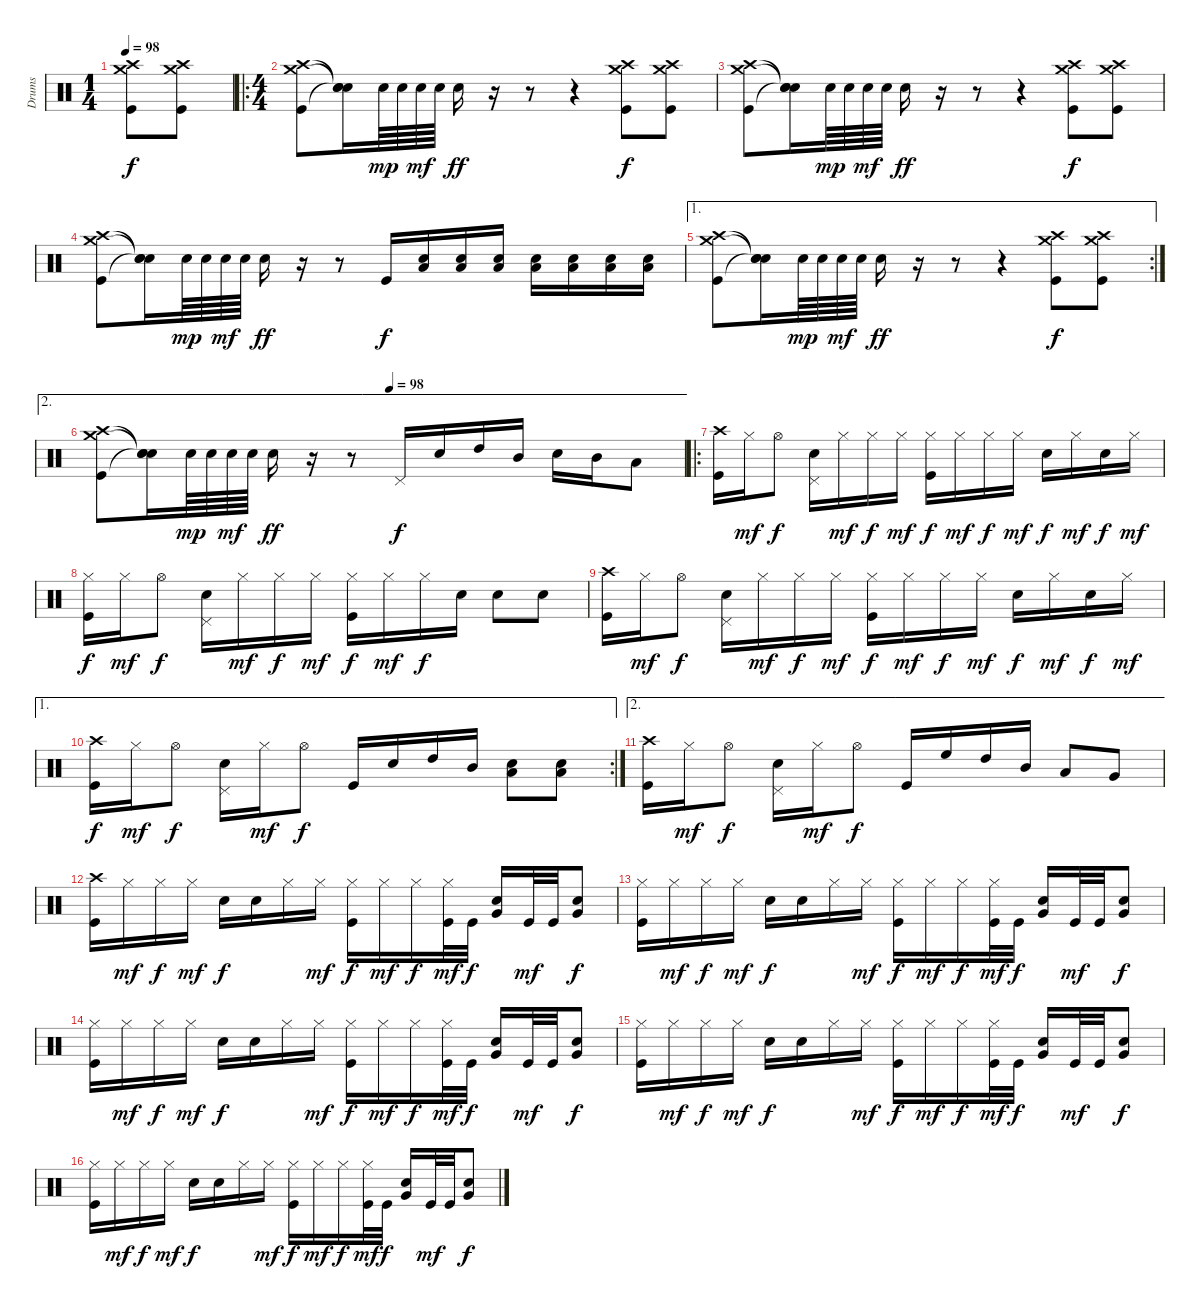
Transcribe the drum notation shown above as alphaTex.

\track ("Drums" "Drums") {instrument percussion}
\staff {score}
\articulation defaults
\ts (1 4)
\tempo 98
\tempo 70
\tempo 98
\clef neutral
\ks c
("Crash high (hit)" "Crash medium (hit)" "Kick (hit)").8{dy f} ("Crash high (hit)" "Crash medium (hit)" "Kick (hit)").8 |
\ro
\ts (4 4)
("Crash high (hit)" "Crash medium (hit)" "Kick (hit)").8 ("Snare (hit)"{t} "Snare (hit)"{t} "Snare (hit)"{t}).16 "Electric Snare (hit)".64{dy mp} "Electric Snare (hit)".64 "Electric Snare (hit)".64{dy mf} "Electric Snare (hit)".64 "Electric Snare (hit)".16{dy ff} r.16 r.8 r.4 ("Crash medium (hit)" "Crash high (hit)" "Kick (hit)").8{dy f} ("Crash high (hit)" "Crash medium (hit)" "Kick (hit)").8 |
("Crash high (hit)" "Crash medium (hit)" "Kick (hit)").8 ("Snare (hit)"{t} "Snare (hit)"{t} "Snare (hit)"{t}).16 "Electric Snare (hit)".64{dy mp} "Electric Snare (hit)".64 "Electric Snare (hit)".64{dy mf} "Electric Snare (hit)".64 "Electric Snare (hit)".16{dy ff} r.16 r.8 r.4 ("Crash medium (hit)" "Crash high (hit)" "Kick (hit)").8{dy f} ("Crash high (hit)" "Crash medium (hit)" "Kick (hit)").8 |
("Crash high (hit)" "Crash medium (hit)" "Kick (hit)").8 ("Snare (hit)"{t} "Snare (hit)"{t} "Snare (hit)"{t}).16 "Electric Snare (hit)".64{dy mp} "Electric Snare (hit)".64 "Electric Snare (hit)".64{dy mf} "Electric Snare (hit)".64 "Electric Snare (hit)".16{dy ff} r.16 r.8 "Kick (hit)".16{dy f} ("Electric Snare (hit)" "Low Floor Tom (hit)").16 ("Electric Snare (hit)" "Low Floor Tom (hit)").16 ("Electric Snare (hit)" "Low Floor Tom (hit)").16 ("Electric Snare (hit)" "Low Floor Tom (hit)").16 ("Electric Snare (hit)" "Low Floor Tom (hit)").16 ("Electric Snare (hit)" "Low Floor Tom (hit)").16 ("Electric Snare (hit)" "Low Floor Tom (hit)").16 |
\ae 1
\rc 2
("Crash high (hit)" "Crash medium (hit)" "Kick (hit)").8 ("Snare (hit)"{t} "Snare (hit)"{t} "Snare (hit)"{t}).16 "Electric Snare (hit)".64{dy mp} "Electric Snare (hit)".64 "Electric Snare (hit)".64{dy mf} "Electric Snare (hit)".64 "Electric Snare (hit)".16{dy ff} r.16 r.8 r.4 ("Crash medium (hit)" "Crash high (hit)" "Kick (hit)").8{dy f} ("Crash high (hit)" "Crash medium (hit)" "Kick (hit)").8 |
\ae 2
\tempo (98 0.5)
("Crash high (hit)" "Crash medium (hit)" "Kick (hit)").8 ("Snare (hit)"{t} "Snare (hit)"{t} "Snare (hit)"{t}).16 "Electric Snare (hit)".64{dy mp} "Electric Snare (hit)".64 "Electric Snare (hit)".64{dy mf} "Electric Snare (hit)".64 "Electric Snare (hit)".16{dy ff} r.16 r.8 "Pedal Hi-Hat (hit)".16{dy f} "Electric Snare (hit)".16 "High Tom (hit)".16 "Mid Tom (hit)".16 "Electric Snare (hit)".16 "Mid Tom (hit)".16 "Low Tom (hit)".8 |
\ro
("Crash high (hit)" "Kick (hit)").16 "Hi-Hat (closed)".16{dy mf} "Hi-Hat (open)".8{dy f} ("Electric Snare (hit)" "Pedal Hi-Hat (hit)").16 "Hi-Hat (closed)".16{dy mf} "Hi-Hat (closed)".16{dy f} "Hi-Hat (closed)".16{dy mf} ("Hi-Hat (closed)" "Kick (hit)").16{dy f} "Hi-Hat (closed)".16{dy mf} "Hi-Hat (closed)".16{dy f} "Hi-Hat (closed)".16{dy mf} "Electric Snare (hit)".16{dy f} "Hi-Hat (closed)".16{dy mf} "Electric Snare (hit)".16{dy f} "Hi-Hat (closed)".16{dy mf} |
("Hi-Hat (closed)" "Kick (hit)").16{dy f} "Hi-Hat (closed)".16{dy mf} "Hi-Hat (open)".8{dy f} ("Electric Snare (hit)" "Pedal Hi-Hat (hit)").16 "Hi-Hat (closed)".16{dy mf} "Hi-Hat (closed)".16{dy f} "Hi-Hat (closed)".16{dy mf} ("Hi-Hat (closed)" "Kick (hit)").16{dy f} "Hi-Hat (closed)".16{dy mf} "Hi-Hat (closed)".16{dy f} "Electric Snare (hit)".16 "Electric Snare (hit)".8 "Electric Snare (hit)".8 |
("Crash high (hit)" "Kick (hit)").16 "Hi-Hat (closed)".16{dy mf} "Hi-Hat (open)".8{dy f} ("Electric Snare (hit)" "Pedal Hi-Hat (hit)").16 "Hi-Hat (closed)".16{dy mf} "Hi-Hat (closed)".16{dy f} "Hi-Hat (closed)".16{dy mf} ("Hi-Hat (closed)" "Kick (hit)").16{dy f} "Hi-Hat (closed)".16{dy mf} "Hi-Hat (closed)".16{dy f} "Hi-Hat (closed)".16{dy mf} "Electric Snare (hit)".16{dy f} "Hi-Hat (closed)".16{dy mf} "Electric Snare (hit)".16{dy f} "Hi-Hat (closed)".16{dy mf} |
\ae 1
\rc 2
("Crash high (hit)" "Kick (hit)").16{dy f} "Hi-Hat (closed)".16{dy mf} "Hi-Hat (open)".8{dy f} ("Electric Snare (hit)" "Pedal Hi-Hat (hit)").16 "Hi-Hat (closed)".16{dy mf} "Hi-Hat (open)".8{dy f} "Kick (hit)".16 "Electric Snare (hit)".16 "High Tom (hit)".16 "Mid Tom (hit)".16 ("Electric Snare (hit)" "Low Floor Tom (hit)").8 ("Electric Snare (hit)" "Low Floor Tom (hit)").8 |
\ae 2
("Crash high (hit)" "Kick (hit)").16 "Hi-Hat (closed)".16{dy mf} "Hi-Hat (open)".8{dy f} ("Electric Snare (hit)" "Pedal Hi-Hat (hit)").16 "Hi-Hat (closed)".16{dy mf} "Hi-Hat (open)".8{dy f} "Kick (hit)".16 "High Floor Tom (hit)".16 "High Tom (hit)".16 "Mid Tom (hit)".16 "Low Tom (hit)".8 "Very Low Tom (hit)".8 |
("Crash high (hit)" "Kick (hit)").16 "Hi-Hat (closed)".16{dy mf} "Hi-Hat (closed)".16{dy f} "Hi-Hat (closed)".16{dy mf} "Electric Snare (hit)".16{dy f} "Electric Snare (hit)".16 "Hi-Hat (closed)".16 "Hi-Hat (closed)".16{dy mf} ("Hi-Hat (closed)" "Kick (hit)").16{dy f} "Hi-Hat (closed)".16{dy mf} "Hi-Hat (closed)".16{dy f} ("Hi-Hat (closed)" "Kick (hit)").32{dy mf} "Kick (hit)".32{dy f} ("Electric Snare (hit)" "Very Low Tom (hit)").16 "Kick (hit)".32{dy mf} "Kick (hit)".32 ("Electric Snare (hit)" "Very Low Tom (hit)").8{dy f} |
("Hi-Hat (closed)" "Kick (hit)").16 "Hi-Hat (closed)".16{dy mf} "Hi-Hat (closed)".16{dy f} "Hi-Hat (closed)".16{dy mf} "Electric Snare (hit)".16{dy f} "Electric Snare (hit)".16 "Hi-Hat (closed)".16 "Hi-Hat (closed)".16{dy mf} ("Hi-Hat (closed)" "Kick (hit)").16{dy f} "Hi-Hat (closed)".16{dy mf} "Hi-Hat (closed)".16{dy f} ("Hi-Hat (closed)" "Kick (hit)").32{dy mf} "Kick (hit)".32{dy f} ("Electric Snare (hit)" "Very Low Tom (hit)").16 "Kick (hit)".32{dy mf} "Kick (hit)".32 ("Electric Snare (hit)" "Very Low Tom (hit)").8{dy f} |
("Hi-Hat (closed)" "Kick (hit)").16 "Hi-Hat (closed)".16{dy mf} "Hi-Hat (closed)".16{dy f} "Hi-Hat (closed)".16{dy mf} "Electric Snare (hit)".16{dy f} "Electric Snare (hit)".16 "Hi-Hat (closed)".16 "Hi-Hat (closed)".16{dy mf} ("Hi-Hat (closed)" "Kick (hit)").16{dy f} "Hi-Hat (closed)".16{dy mf} "Hi-Hat (closed)".16{dy f} ("Hi-Hat (closed)" "Kick (hit)").32{dy mf} "Kick (hit)".32{dy f} ("Electric Snare (hit)" "Very Low Tom (hit)").16 "Kick (hit)".32{dy mf} "Kick (hit)".32 ("Electric Snare (hit)" "Very Low Tom (hit)").8{dy f} |
("Hi-Hat (closed)" "Kick (hit)").16 "Hi-Hat (closed)".16{dy mf} "Hi-Hat (closed)".16{dy f} "Hi-Hat (closed)".16{dy mf} "Electric Snare (hit)".16{dy f} "Electric Snare (hit)".16 "Hi-Hat (closed)".16 "Hi-Hat (closed)".16{dy mf} ("Hi-Hat (closed)" "Kick (hit)").16{dy f} "Hi-Hat (closed)".16{dy mf} "Hi-Hat (closed)".16{dy f} ("Hi-Hat (closed)" "Kick (hit)").32{dy mf} "Kick (hit)".32{dy f} ("Electric Snare (hit)" "Very Low Tom (hit)").16 "Kick (hit)".32{dy mf} "Kick (hit)".32 ("Electric Snare (hit)" "Very Low Tom (hit)").8{dy f} |
("Hi-Hat (closed)" "Kick (hit)").16 "Hi-Hat (closed)".16{dy mf} "Hi-Hat (closed)".16{dy f} "Hi-Hat (closed)".16{dy mf} "Electric Snare (hit)".16{dy f} "Electric Snare (hit)".16 "Hi-Hat (closed)".16 "Hi-Hat (closed)".16{dy mf} ("Hi-Hat (closed)" "Kick (hit)").16{dy f} "Hi-Hat (closed)".16{dy mf} "Hi-Hat (closed)".16{dy f} ("Hi-Hat (closed)" "Kick (hit)").32{dy mf} "Kick (hit)".32{dy f} ("Electric Snare (hit)" "Very Low Tom (hit)").16 "Kick (hit)".32{dy mf} "Kick (hit)".32 ("Electric Snare (hit)" "Very Low Tom (hit)").8{dy f}
